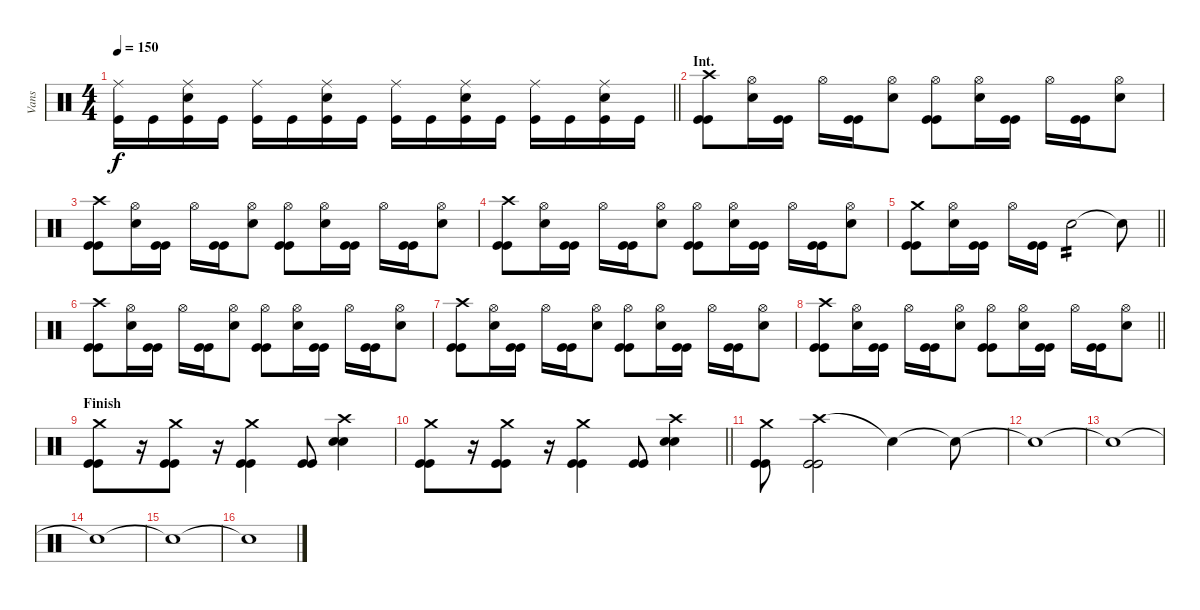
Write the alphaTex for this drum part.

\track ("Vans" "Vans") {instrument percussion}
\staff {score}
\articulation defaults
\ts (4 4)
\tempo 150
\clef neutral
\barLineRight lightlight
\ks c
("Ride (middle)" "Kick (hit)").16{dy f} "Kick (hit)".16 ("Ride (middle)" "Kick (hit)" "Snare (hit) 2").16 "Kick (hit)".16 ("Ride (middle)" "Kick (hit)").16 "Kick (hit)".16 ("Ride (middle)" "Kick (hit)" "Snare (hit) 2").16 "Kick (hit)".16 ("Ride (middle)" "Kick (hit)").16 "Kick (hit)".16 ("Ride (middle)" "Kick (hit)" "Snare (hit) 2").16 "Kick (hit)".16 ("Ride (middle)" "Kick (hit)").16 "Kick (hit)".16 ("Ride (middle)" "Kick (hit)" "Snare (hit) 2").16 "Kick (hit)".16 |
\section ("" "Int.")
("Crash high (hit)" "Kick (hit)" "Kick (hit)").8 ("Hi-Hat (open)" "Snare (hit) 2").16 ("Kick (hit)" "Kick (hit)").16 "Hi-Hat (open)".16 ("Kick (hit)" "Kick (hit)").16 ("Hi-Hat (open)" "Snare (hit) 2").8 ("Hi-Hat (open)" "Kick (hit)" "Kick (hit)").8 ("Hi-Hat (open)" "Snare (hit) 2").16 ("Kick (hit)" "Kick (hit)").16 "Hi-Hat (open)".16 ("Kick (hit)" "Kick (hit)").16 ("Hi-Hat (open)" "Snare (hit) 2").8 |
("Crash high (hit)" "Kick (hit)" "Kick (hit)").8 ("Hi-Hat (open)" "Snare (hit) 2").16 ("Kick (hit)" "Kick (hit)").16 "Hi-Hat (open)".16 ("Kick (hit)" "Kick (hit)").16 ("Hi-Hat (open)" "Snare (hit) 2").8 ("Hi-Hat (open)" "Kick (hit)" "Kick (hit)").8 ("Hi-Hat (open)" "Snare (hit) 2").16 ("Kick (hit)" "Kick (hit)").16 "Hi-Hat (open)".16 ("Kick (hit)" "Kick (hit)").16 ("Hi-Hat (open)" "Snare (hit) 2").8 |
("Crash high (hit)" "Kick (hit)" "Kick (hit)").8 ("Hi-Hat (open)" "Snare (hit) 2").16 ("Kick (hit)" "Kick (hit)").16 "Hi-Hat (open)".16 ("Kick (hit)" "Kick (hit)").16 ("Hi-Hat (open)" "Snare (hit) 2").8 ("Hi-Hat (open)" "Kick (hit)" "Kick (hit)").8 ("Hi-Hat (open)" "Snare (hit) 2").16 ("Kick (hit)" "Kick (hit)").16 "Hi-Hat (open)".16 ("Kick (hit)" "Kick (hit)").16 ("Hi-Hat (open)" "Snare (hit) 2").8 |
\barLineRight lightlight
("Crash medium (hit)" "Kick (hit)" "Kick (hit)").8 ("Hi-Hat (open)" "Snare (hit) 2").16 ("Kick (hit)" "Kick (hit)").16 "Hi-Hat (open)".16 ("Kick (hit)" "Kick (hit)").16 "Snare (hit) 2".2{tp 2} "Snare (hit)"{t}.8 |
("Crash high (hit)" "Kick (hit)" "Kick (hit)").8 ("Hi-Hat (open)" "Snare (hit) 2").16 ("Kick (hit)" "Kick (hit)").16 "Hi-Hat (open)".16 ("Kick (hit)" "Kick (hit)").16 ("Hi-Hat (open)" "Snare (hit) 2").8 ("Hi-Hat (open)" "Kick (hit)" "Kick (hit)").8 ("Hi-Hat (open)" "Snare (hit) 2").16 ("Kick (hit)" "Kick (hit)").16 "Hi-Hat (open)".16 ("Kick (hit)" "Kick (hit)").16 ("Hi-Hat (open)" "Snare (hit) 2").8 |
("Crash high (hit)" "Kick (hit)" "Kick (hit)").8 ("Hi-Hat (open)" "Snare (hit) 2").16 ("Kick (hit)" "Kick (hit)").16 "Hi-Hat (open)".16 ("Kick (hit)" "Kick (hit)").16 ("Hi-Hat (open)" "Snare (hit) 2").8 ("Hi-Hat (open)" "Kick (hit)" "Kick (hit)").8 ("Hi-Hat (open)" "Snare (hit) 2").16 ("Kick (hit)" "Kick (hit)").16 "Hi-Hat (open)".16 ("Kick (hit)" "Kick (hit)").16 ("Hi-Hat (open)" "Snare (hit) 2").8 |
\barLineRight lightlight
("Crash high (hit)" "Kick (hit)" "Kick (hit)").8 ("Hi-Hat (open)" "Snare (hit) 2").16 ("Kick (hit)" "Kick (hit)").16 "Hi-Hat (open)".16 ("Kick (hit)" "Kick (hit)").16 ("Hi-Hat (open)" "Snare (hit) 2").8 ("Hi-Hat (open)" "Kick (hit)" "Kick (hit)").8 ("Hi-Hat (open)" "Snare (hit) 2").16 ("Kick (hit)" "Kick (hit)").16 "Hi-Hat (open)".16 ("Kick (hit)" "Kick (hit)").16 ("Hi-Hat (open)" "Snare (hit) 2").8 |
\section ("" "Finish")
("Crash medium (hit)" "Kick (hit)" "Kick (hit)").8 r.16 ("Crash medium (hit)" "Kick (hit)" "Kick (hit)").8 r.16 ("Crash medium (hit)" "Kick (hit)" "Kick (hit)").4 ("Kick (hit)" "Kick (hit)").8 ("Crash high (hit)" "Snare (hit) 2" "Snare (hit) 2").4 |
\barLineRight lightlight
("Crash medium (hit)" "Kick (hit)" "Kick (hit)").8 r.16 ("Crash medium (hit)" "Kick (hit)" "Kick (hit)").8 r.16 ("Crash medium (hit)" "Kick (hit)" "Kick (hit)").4 ("Kick (hit)" "Kick (hit)").8 ("Crash high (hit)" "Snare (hit) 2" "Snare (hit) 2").4 |
("Crash medium (hit)" "Kick (hit)" "Kick (hit)").8 ("Crash high (hit)" "Kick (hit)" "Kick (hit)").2 "Snare (hit)"{t}.4 "Snare (hit)"{t}.8 |
"Snare (hit)"{t}.1 |
"Snare (hit)"{t}.1 |
"Snare (hit)"{t}.1 |
"Snare (hit)"{t}.1 |
"Snare (hit)"{t}.1
